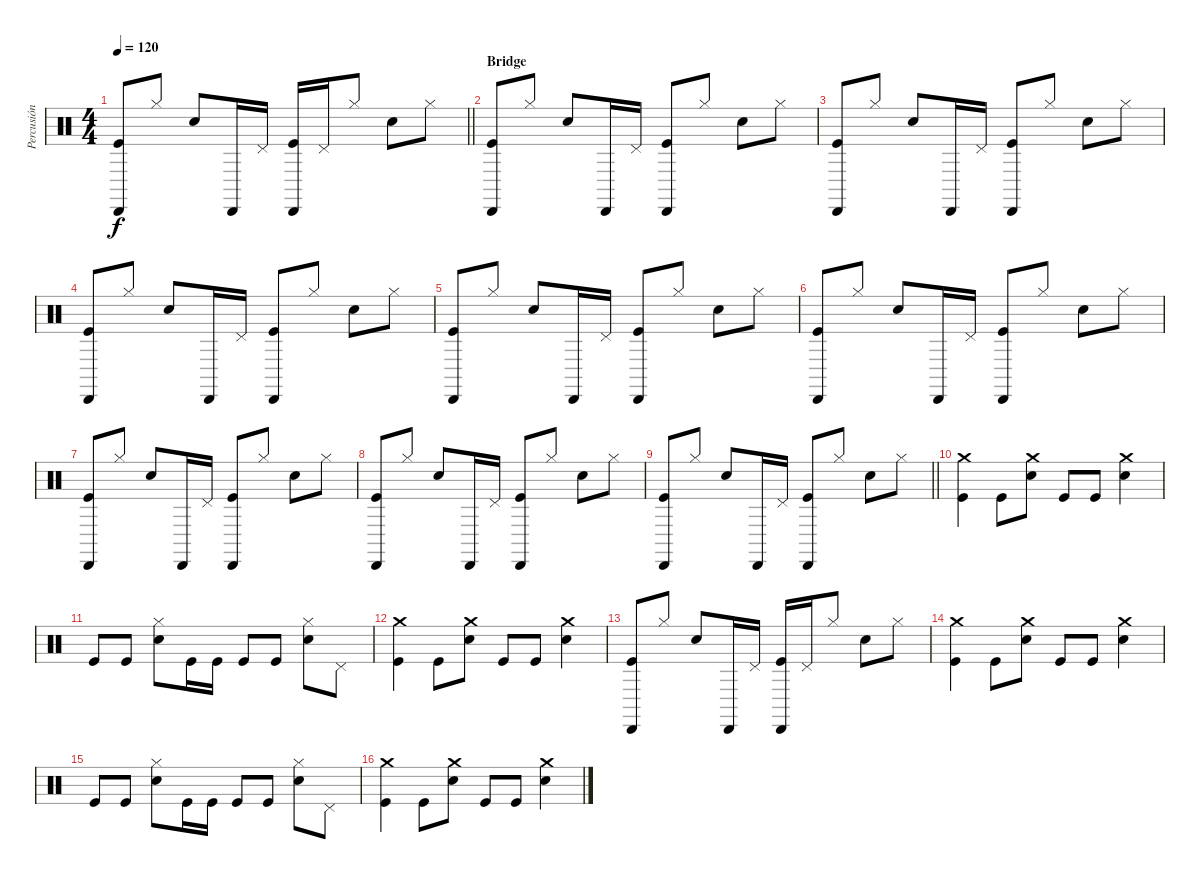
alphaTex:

\track ("Percusión" "Percusión") {instrument percussion}
\staff {score}
\articulation defaults
\ts (4 4)
\tempo 120
\clef neutral
\barLineRight lightlight
\ks c
("Kick (hit)" "Cabasa (hit)").8{dy f} "Hi-Hat (closed)".8 "Electric Snare (hit)".8 "Cabasa (hit)".16 "Pedal Hi-Hat (hit)".16 ("Kick (hit)" "Cabasa (hit)").16 "Pedal Hi-Hat (hit)".16 "Hi-Hat (closed)".8 "Electric Snare (hit)".8 "Hi-Hat (closed)".8 |
\section ("" "Bridge")
("Kick (hit)" "Cabasa (hit)").8 "Hi-Hat (closed)".8 "Electric Snare (hit)".8 "Cabasa (hit)".16 "Pedal Hi-Hat (hit)".16 ("Kick (hit)" "Cabasa (hit)").8 "Hi-Hat (closed)".8 "Electric Snare (hit)".8 "Hi-Hat (closed)".8 |
("Kick (hit)" "Cabasa (hit)").8 "Hi-Hat (closed)".8 "Electric Snare (hit)".8 "Cabasa (hit)".16 "Pedal Hi-Hat (hit)".16 ("Kick (hit)" "Cabasa (hit)").8 "Hi-Hat (closed)".8 "Electric Snare (hit)".8 "Hi-Hat (closed)".8 |
("Kick (hit)" "Cabasa (hit)").8 "Hi-Hat (closed)".8 "Electric Snare (hit)".8 "Cabasa (hit)".16 "Pedal Hi-Hat (hit)".16 ("Kick (hit)" "Cabasa (hit)").8 "Hi-Hat (closed)".8 "Electric Snare (hit)".8 "Hi-Hat (closed)".8 |
("Kick (hit)" "Cabasa (hit)").8 "Hi-Hat (closed)".8 "Electric Snare (hit)".8 "Cabasa (hit)".16 "Pedal Hi-Hat (hit)".16 ("Kick (hit)" "Cabasa (hit)").8 "Hi-Hat (closed)".8 "Electric Snare (hit)".8 "Hi-Hat (closed)".8 |
("Kick (hit)" "Cabasa (hit)").8 "Hi-Hat (closed)".8 "Electric Snare (hit)".8 "Cabasa (hit)".16 "Pedal Hi-Hat (hit)".16 ("Kick (hit)" "Cabasa (hit)").8 "Hi-Hat (closed)".8 "Electric Snare (hit)".8 "Hi-Hat (closed)".8 |
("Kick (hit)" "Cabasa (hit)").8 "Hi-Hat (closed)".8 "Electric Snare (hit)".8 "Cabasa (hit)".16 "Pedal Hi-Hat (hit)".16 ("Kick (hit)" "Cabasa (hit)").8 "Hi-Hat (closed)".8 "Electric Snare (hit)".8 "Hi-Hat (closed)".8 |
("Kick (hit)" "Cabasa (hit)").8 "Hi-Hat (closed)".8 "Electric Snare (hit)".8 "Cabasa (hit)".16 "Pedal Hi-Hat (hit)".16 ("Kick (hit)" "Cabasa (hit)").8 "Hi-Hat (closed)".8 "Electric Snare (hit)".8 "Hi-Hat (closed)".8 |
\barLineRight lightlight
("Kick (hit)" "Cabasa (hit)").8 "Hi-Hat (closed)".8 "Electric Snare (hit)".8 "Cabasa (hit)".16 "Pedal Hi-Hat (hit)".16 ("Kick (hit)" "Cabasa (hit)").8 "Hi-Hat (closed)".8 "Electric Snare (hit)".8 "Hi-Hat (closed)".8 |
\section ("" "")
("Crash medium (hit)" "Kick (hit)").4 "Kick (hit)".8 ("Crash medium (hit)" "Electric Snare (hit)").8 "Kick (hit)".8 "Kick (hit)".8 ("Crash medium (hit)" "Electric Snare (hit)").4 |
"Kick (hit)".8 "Kick (hit)".8 ("Hi-Hat (closed)" "Electric Snare (hit)").8 "Kick (hit)".16 "Kick (hit)".16 "Kick (hit)".8 "Kick (hit)".8 ("Hi-Hat (closed)" "Electric Snare (hit)").8 "Pedal Hi-Hat (hit)".8 |
("Crash medium (hit)" "Kick (hit)").4 "Kick (hit)".8 ("Crash medium (hit)" "Electric Snare (hit)").8 "Kick (hit)".8 "Kick (hit)".8 ("Crash medium (hit)" "Electric Snare (hit)").4 |
("Kick (hit)" "Cabasa (hit)").8 "Hi-Hat (closed)".8 "Electric Snare (hit)".8 "Cabasa (hit)".16 "Pedal Hi-Hat (hit)".16 ("Kick (hit)" "Cabasa (hit)").16 "Pedal Hi-Hat (hit)".16 "Hi-Hat (closed)".8 "Electric Snare (hit)".8 "Hi-Hat (closed)".8 |
("Crash medium (hit)" "Kick (hit)").4 "Kick (hit)".8 ("Crash medium (hit)" "Electric Snare (hit)").8 "Kick (hit)".8 "Kick (hit)".8 ("Crash medium (hit)" "Electric Snare (hit)").4 |
"Kick (hit)".8 "Kick (hit)".8 ("Hi-Hat (closed)" "Electric Snare (hit)").8 "Kick (hit)".16 "Kick (hit)".16 "Kick (hit)".8 "Kick (hit)".8 ("Hi-Hat (closed)" "Electric Snare (hit)").8 "Pedal Hi-Hat (hit)".8 |
("Crash medium (hit)" "Kick (hit)").4 "Kick (hit)".8 ("Crash medium (hit)" "Electric Snare (hit)").8 "Kick (hit)".8 "Kick (hit)".8 ("Crash medium (hit)" "Electric Snare (hit)").4
